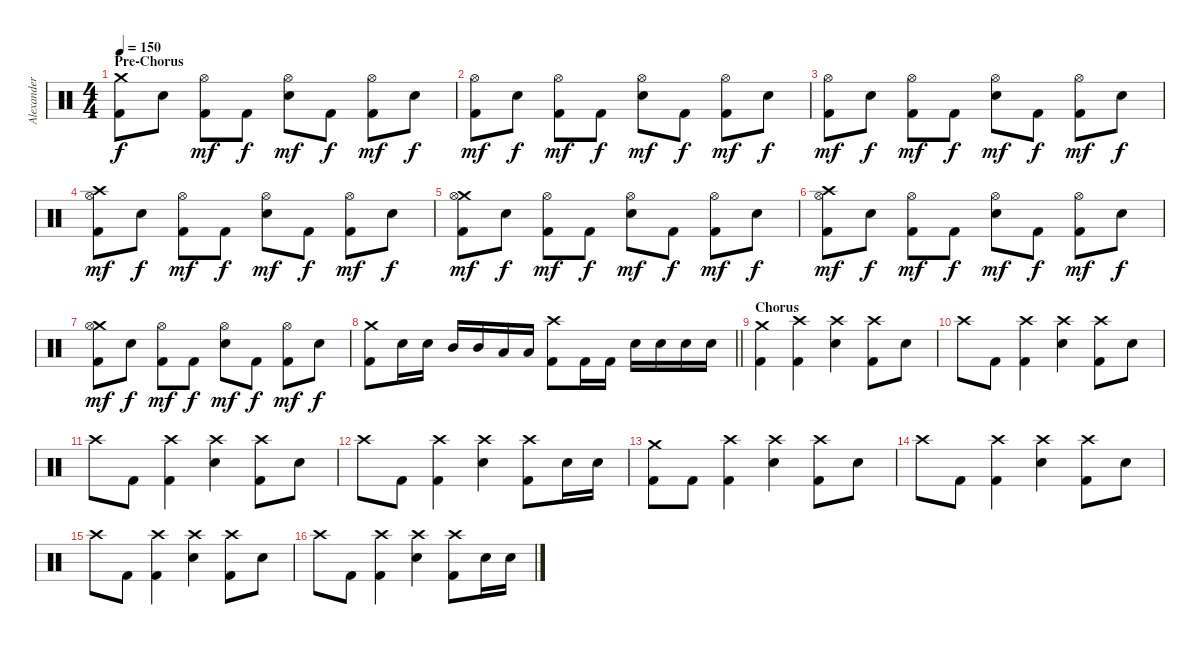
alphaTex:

\track ("Alexander Sveningsson" "Alexander ") {instrument percussion}
\staff {score}
\articulation defaults
\ts (4 4)
\section ("" "Pre-Chorus")
\tempo 150
\clef neutral
\ks c
("Crash medium (hit)" "Kick (hit) 2").8{dy f} "Electric Snare (hit)".8 ("Hi-Hat (open)" "Kick (hit) 2").8{dy mf} "Kick (hit) 2".8{dy f} ("Hi-Hat (open)" "Electric Snare (hit)").8{dy mf} "Kick (hit) 2".8{dy f} ("Hi-Hat (open)" "Kick (hit) 2").8{dy mf} "Electric Snare (hit)".8{dy f} |
("Hi-Hat (open)" "Kick (hit) 2").8{dy mf} "Electric Snare (hit)".8{dy f} ("Hi-Hat (open)" "Kick (hit) 2").8{dy mf} "Kick (hit) 2".8{dy f} ("Hi-Hat (open)" "Electric Snare (hit)").8{dy mf} "Kick (hit) 2".8{dy f} ("Hi-Hat (open)" "Kick (hit) 2").8{dy mf} "Electric Snare (hit)".8{dy f} |
("Hi-Hat (open)" "Kick (hit) 2").8{dy mf} "Electric Snare (hit)".8{dy f} ("Hi-Hat (open)" "Kick (hit) 2").8{dy mf} "Kick (hit) 2".8{dy f} ("Hi-Hat (open)" "Electric Snare (hit)").8{dy mf} "Kick (hit) 2".8{dy f} ("Hi-Hat (open)" "Kick (hit) 2").8{dy mf} "Electric Snare (hit)".8{dy f} |
("Crash high (hit)" "Hi-Hat (open)" "Kick (hit) 2").8{dy mf} "Electric Snare (hit)".8{dy f} ("Hi-Hat (open)" "Kick (hit) 2").8{dy mf} "Kick (hit) 2".8{dy f} ("Hi-Hat (open)" "Electric Snare (hit)").8{dy mf} "Kick (hit) 2".8{dy f} ("Hi-Hat (open)" "Kick (hit) 2").8{dy mf} "Electric Snare (hit)".8{dy f} |
("Crash medium (hit)" "Hi-Hat (open)" "Kick (hit) 2").8{dy mf} "Electric Snare (hit)".8{dy f} ("Hi-Hat (open)" "Kick (hit) 2").8{dy mf} "Kick (hit) 2".8{dy f} ("Hi-Hat (open)" "Electric Snare (hit)").8{dy mf} "Kick (hit) 2".8{dy f} ("Hi-Hat (open)" "Kick (hit) 2").8{dy mf} "Electric Snare (hit)".8{dy f} |
("Crash high (hit)" "Hi-Hat (open)" "Kick (hit) 2").8{dy mf} "Electric Snare (hit)".8{dy f} ("Hi-Hat (open)" "Kick (hit) 2").8{dy mf} "Kick (hit) 2".8{dy f} ("Hi-Hat (open)" "Electric Snare (hit)").8{dy mf} "Kick (hit) 2".8{dy f} ("Hi-Hat (open)" "Kick (hit) 2").8{dy mf} "Electric Snare (hit)".8{dy f} |
("Crash medium (hit)" "Hi-Hat (open)" "Kick (hit) 2").8{dy mf} "Electric Snare (hit)".8{dy f} ("Hi-Hat (open)" "Kick (hit) 2").8{dy mf} "Kick (hit) 2".8{dy f} ("Hi-Hat (open)" "Electric Snare (hit)").8{dy mf} "Kick (hit) 2".8{dy f} ("Hi-Hat (open)" "Kick (hit) 2").8{dy mf} "Electric Snare (hit)".8{dy f} |
\barLineRight lightlight
("Crash medium (hit)" "Kick (hit) 2").8 "Electric Snare (hit)".16 "Electric Snare (hit)".16 "Mid Tom (hit)".16 "Mid Tom (hit)".16 "Low Tom (hit)".16 "Low Tom (hit)".16 ("Crash high (hit)" "Kick (hit) 2").8 "Kick (hit) 2".16 "Kick (hit) 2".16 "Electric Snare (hit)".16 "Electric Snare (hit)".16 "Electric Snare (hit)".16 "Electric Snare (hit)".16 |
\section ("" "Chorus")
("Crash medium (hit)" "Kick (hit) 2").4 ("Crash high (hit)" "Kick (hit) 2").4 ("Crash high (hit)" "Electric Snare (hit)").4 ("Crash high (hit)" "Kick (hit) 2").8 "Electric Snare (hit)".8 |
"Crash high (hit)".8 "Kick (hit) 2".8 ("Crash high (hit)" "Kick (hit) 2").4 ("Crash high (hit)" "Electric Snare (hit)").4 ("Crash high (hit)" "Kick (hit) 2").8 "Electric Snare (hit)".8 |
"Crash high (hit)".8 "Kick (hit) 2".8 ("Crash high (hit)" "Kick (hit) 2").4 ("Crash high (hit)" "Electric Snare (hit)").4 ("Crash high (hit)" "Kick (hit) 2").8 "Electric Snare (hit)".8 |
"Crash high (hit)".8 "Kick (hit) 2".8 ("Crash high (hit)" "Kick (hit) 2").4 ("Crash high (hit)" "Electric Snare (hit)").4 ("Crash high (hit)" "Kick (hit) 2").8 "Electric Snare (hit)".16 "Electric Snare (hit)".16 |
("Crash medium (hit)" "Kick (hit) 2").8 "Kick (hit) 2".8 ("Crash high (hit)" "Kick (hit) 2").4 ("Crash high (hit)" "Electric Snare (hit)").4 ("Crash high (hit)" "Kick (hit) 2").8 "Electric Snare (hit)".8 |
"Crash high (hit)".8 "Kick (hit) 2".8 ("Crash high (hit)" "Kick (hit) 2").4 ("Crash high (hit)" "Electric Snare (hit)").4 ("Crash high (hit)" "Kick (hit) 2").8 "Electric Snare (hit)".8 |
"Crash high (hit)".8 "Kick (hit) 2".8 ("Crash high (hit)" "Kick (hit) 2").4 ("Crash high (hit)" "Electric Snare (hit)").4 ("Crash high (hit)" "Kick (hit) 2").8 "Electric Snare (hit)".8 |
"Crash high (hit)".8 "Kick (hit) 2".8 ("Crash high (hit)" "Kick (hit) 2").4 ("Crash high (hit)" "Electric Snare (hit)").4 ("Crash high (hit)" "Kick (hit) 2").8 "Electric Snare (hit)".16 "Electric Snare (hit)".16
